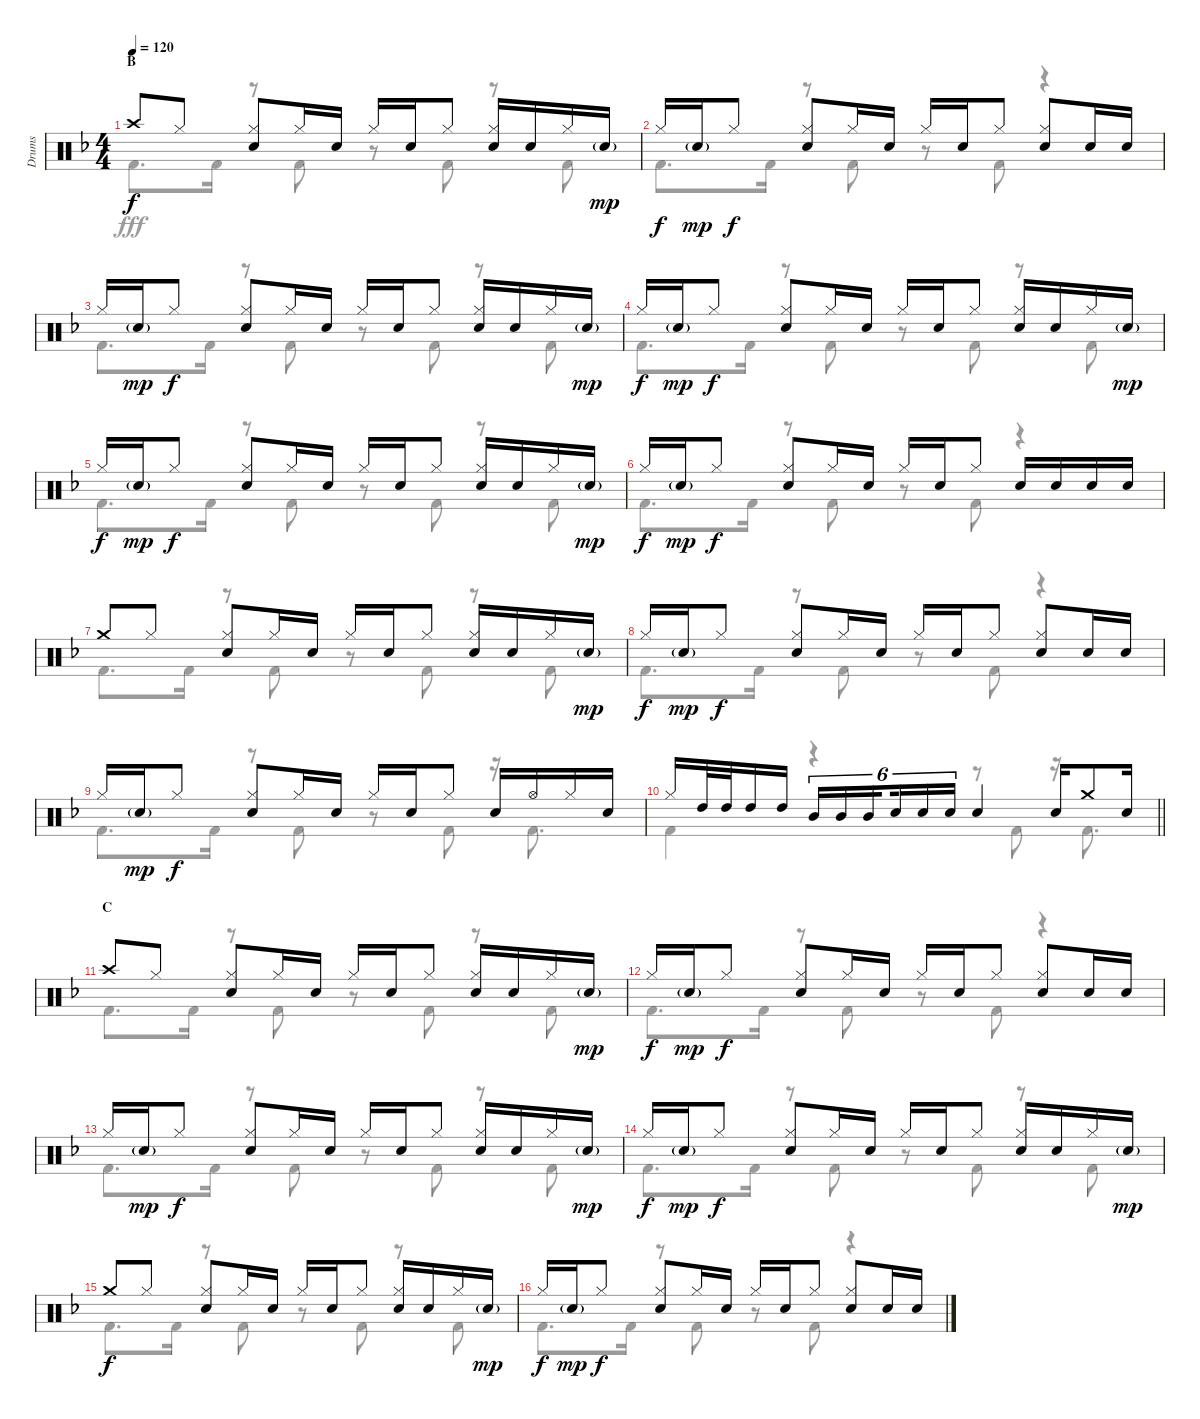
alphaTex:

\track ("Drums" "Drums") {instrument percussion}
\staff {score}
\articulation defaults
\voice
\ts (4 4)
\section ("" "B")
\tempo 120
\clef neutral
\ks f "Crash high (hit)".8{dy f} "Hi-Hat (closed)".8
("Hi-Hat (closed)" "Snare (hit) 2").8 "Hi-Hat (closed)".16 "Snare (hit) 2".16 "Hi-Hat (closed)".16 "Snare (hit) 2".16 "Hi-Hat (closed)".8 ("Hi-Hat (closed)" "Snare (hit) 2").16 "Snare (hit) 2".16 "Hi-Hat (closed)".16 "Snare (hit) 2"{g}.16{dy mp} |
"Hi-Hat (closed)".16{dy f} "Snare (hit) 2"{g}.16{dy mp} "Hi-Hat (closed)".8{dy f} ("Hi-Hat (closed)" "Snare (hit) 2").8 "Hi-Hat (closed)".16 "Snare (hit) 2".16 "Hi-Hat (closed)".16 "Snare (hit) 2".16 "Hi-Hat (closed)".8 ("Hi-Hat (closed)" "Snare (hit) 2").8 "Snare (hit) 2".16 "Snare (hit) 2".16 |
"Hi-Hat (closed)".16 "Snare (hit) 2"{g}.16{dy mp} "Hi-Hat (closed)".8{dy f} ("Hi-Hat (closed)" "Snare (hit) 2").8 "Hi-Hat (closed)".16 "Snare (hit) 2".16 "Hi-Hat (closed)".16 "Snare (hit) 2".16 "Hi-Hat (closed)".8 ("Hi-Hat (closed)" "Snare (hit) 2").16 "Snare (hit) 2".16 "Hi-Hat (closed)".16 "Snare (hit) 2"{g}.16{dy mp} |
"Hi-Hat (closed)".16{dy f} "Snare (hit) 2"{g}.16{dy mp} "Hi-Hat (closed)".8{dy f} ("Hi-Hat (closed)" "Snare (hit) 2").8 "Hi-Hat (closed)".16 "Snare (hit) 2".16 "Hi-Hat (closed)".16 "Snare (hit) 2".16 "Hi-Hat (closed)".8 ("Hi-Hat (closed)" "Snare (hit) 2").16 "Snare (hit) 2".16 "Hi-Hat (closed)".16 "Snare (hit) 2"{g}.16{dy mp} |
"Hi-Hat (closed)".16{dy f} "Snare (hit) 2"{g}.16{dy mp} "Hi-Hat (closed)".8{dy f} ("Hi-Hat (closed)" "Snare (hit) 2").8 "Hi-Hat (closed)".16 "Snare (hit) 2".16 "Hi-Hat (closed)".16 "Snare (hit) 2".16 "Hi-Hat (closed)".8 ("Hi-Hat (closed)" "Snare (hit) 2").16 "Snare (hit) 2".16 "Hi-Hat (closed)".16 "Snare (hit) 2"{g}.16{dy mp} |
"Hi-Hat (closed)".16{dy f} "Snare (hit) 2"{g}.16{dy mp} "Hi-Hat (closed)".8{dy f} ("Hi-Hat (closed)" "Snare (hit) 2").8 "Hi-Hat (closed)".16 "Snare (hit) 2".16 "Hi-Hat (closed)".16 "Snare (hit) 2".16 "Hi-Hat (closed)".8 "Snare (hit) 2".16 "Snare (hit) 2".16 "Snare (hit) 2".16 "Snare (hit) 2".16 |
"Crash medium (hit)".8 "Hi-Hat (closed)".8 ("Hi-Hat (closed)" "Snare (hit) 2").8 "Hi-Hat (closed)".16 "Snare (hit) 2".16 "Hi-Hat (closed)".16 "Snare (hit) 2".16 "Hi-Hat (closed)".8 ("Hi-Hat (closed)" "Snare (hit) 2").16 "Snare (hit) 2".16 "Hi-Hat (closed)".16 "Snare (hit) 2"{g}.16{dy mp} |
"Hi-Hat (closed)".16{dy f} "Snare (hit) 2"{g}.16{dy mp} "Hi-Hat (closed)".8{dy f} ("Hi-Hat (closed)" "Snare (hit) 2").8 "Hi-Hat (closed)".16 "Snare (hit) 2".16 "Hi-Hat (closed)".16 "Snare (hit) 2".16 "Hi-Hat (closed)".8 ("Hi-Hat (closed)" "Snare (hit) 2").8 "Snare (hit) 2".16 "Snare (hit) 2".16 |
"Hi-Hat (closed)".16 "Snare (hit) 2"{g}.16{dy mp} "Hi-Hat (closed)".8{dy f} ("Hi-Hat (closed)" "Snare (hit) 2").8 "Hi-Hat (closed)".16 "Snare (hit) 2".16 "Hi-Hat (closed)".16 "Snare (hit) 2".16 "Hi-Hat (closed)".8 "Snare (hit) 2".16 "Hi-Hat (open)".16 "Hi-Hat (closed)".16 "Snare (hit) 2".16 |
\barLineRight lightlight "Hi-Hat (closed)".16 "High Tom (hit)".32 "High Tom (hit)".32 "High Tom (hit)".16 "High Tom (hit)".16 "Mid Tom (hit)".16{tu (6 4)} "Mid Tom (hit)".16{tu (6 4)} "Mid Tom (hit)".16{tu (6 4) beam splitsecondary} "Snare (hit) 2".16{tu (6 4)} "Snare (hit) 2".16{tu (6 4)} "Snare (hit) 2".16{tu (6 4)} "Snare (hit) 2".4 "Snare (hit) 2".16 "Crash medium (hit)".8 "Snare (hit) 2".16
|
\section ("" "C")
"Crash high (hit)".8 "Hi-Hat (closed)".8 ("Hi-Hat (closed)" "Snare (hit) 2").8 "Hi-Hat (closed)".16 "Snare (hit) 2".16 "Hi-Hat (closed)".16 "Snare (hit) 2".16 "Hi-Hat (closed)".8 ("Hi-Hat (closed)" "Snare (hit) 2").16 "Snare (hit) 2".16 "Hi-Hat (closed)".16 "Snare (hit) 2"{g}.16{dy mp} |
"Hi-Hat (closed)".16{dy f} "Snare (hit) 2"{g}.16{dy mp} "Hi-Hat (closed)".8{dy f} ("Hi-Hat (closed)" "Snare (hit) 2").8 "Hi-Hat (closed)".16 "Snare (hit) 2".16 "Hi-Hat (closed)".16 "Snare (hit) 2".16 "Hi-Hat (closed)".8 ("Hi-Hat (closed)" "Snare (hit) 2").8 "Snare (hit) 2".16 "Snare (hit) 2".16 |
"Hi-Hat (closed)".16 "Snare (hit) 2"{g}.16{dy mp} "Hi-Hat (closed)".8{dy f} ("Hi-Hat (closed)" "Snare (hit) 2").8 "Hi-Hat (closed)".16 "Snare (hit) 2".16 "Hi-Hat (closed)".16 "Snare (hit) 2".16 "Hi-Hat (closed)".8 ("Hi-Hat (closed)" "Snare (hit) 2").16 "Snare (hit) 2".16 "Hi-Hat (closed)".16 "Snare (hit) 2"{g}.16{dy mp} |
"Hi-Hat (closed)".16{dy f} "Snare (hit) 2"{g}.16{dy mp} "Hi-Hat (closed)".8{dy f} ("Hi-Hat (closed)" "Snare (hit) 2").8 "Hi-Hat (closed)".16 "Snare (hit) 2".16 "Hi-Hat (closed)".16 "Snare (hit) 2".16 "Hi-Hat (closed)".8 ("Hi-Hat (closed)" "Snare (hit) 2").16 "Snare (hit) 2".16 "Hi-Hat (closed)".16 "Snare (hit) 2"{g}.16{dy mp} |
"Crash medium (hit)".8{dy f} "Hi-Hat (closed)".8 ("Hi-Hat (closed)" "Snare (hit) 2").8 "Hi-Hat (closed)".16 "Snare (hit) 2".16 "Hi-Hat (closed)".16 "Snare (hit) 2".16 "Hi-Hat (closed)".8 ("Hi-Hat (closed)" "Snare (hit) 2").16 "Snare (hit) 2".16 "Hi-Hat (closed)".16 "Snare (hit) 2"{g}.16{dy mp} |
"Hi-Hat (closed)".16{dy f} "Snare (hit) 2"{g}.16{dy mp} "Hi-Hat (closed)".8{dy f} ("Hi-Hat (closed)" "Snare (hit) 2").8 "Hi-Hat (closed)".16 "Snare (hit) 2".16 "Hi-Hat (closed)".16 "Snare (hit) 2".16 "Hi-Hat (closed)".8 ("Hi-Hat (closed)" "Snare (hit) 2").8 "Snare (hit) 2".16 "Snare (hit) 2".16
\voice
\clef neutral
\ottava regular
\simile none
\ks f "Kick (hit) 2".8{d dy fff} "Kick (hit) 2".16
r.8 "Kick (hit) 2".8 r.8 "Kick (hit) 2".8 r.8 "Kick (hit) 2".8 |
"Kick (hit) 2".8{d} "Kick (hit) 2".16 r.8 "Kick (hit) 2".8 r.8 "Kick (hit) 2".8 r.4 |
"Kick (hit) 2".8{d} "Kick (hit) 2".16 r.8 "Kick (hit) 2".8 r.8 "Kick (hit) 2".8 r.8 "Kick (hit) 2".8 |
"Kick (hit) 2".8{d} "Kick (hit) 2".16 r.8 "Kick (hit) 2".8 r.8 "Kick (hit) 2".8 r.8 "Kick (hit) 2".8 |
"Kick (hit) 2".8{d} "Kick (hit) 2".16 r.8 "Kick (hit) 2".8 r.8 "Kick (hit) 2".8 r.8 "Kick (hit) 2".8 |
"Kick (hit) 2".8{d} "Kick (hit) 2".16 r.8 "Kick (hit) 2".8 r.8 "Kick (hit) 2".8 r.4 |
"Kick (hit) 2".8{d} "Kick (hit) 2".16 r.8 "Kick (hit) 2".8 r.8 "Kick (hit) 2".8 r.8 "Kick (hit) 2".8 |
"Kick (hit) 2".8{d} "Kick (hit) 2".16 r.8 "Kick (hit) 2".8 r.8 "Kick (hit) 2".8 r.4 |
"Kick (hit) 2".8{d} "Kick (hit) 2".16 r.8 "Kick (hit) 2".8 r.8 "Kick (hit) 2".8 r.16 "Kick (hit) 2".8{d} |
\barLineRight lightlight "Kick (hit) 2".4
r.4 r.8 "Kick (hit) 2".8 r.16 "Kick (hit) 2".8{d} |
"Kick (hit) 2".8{d} "Kick (hit) 2".16 r.8 "Kick (hit) 2".8 r.8 "Kick (hit) 2".8 r.8 "Kick (hit) 2".8 |
"Kick (hit) 2".8{d} "Kick (hit) 2".16 r.8 "Kick (hit) 2".8 r.8 "Kick (hit) 2".8 r.4 |
"Kick (hit) 2".8{d} "Kick (hit) 2".16 r.8 "Kick (hit) 2".8 r.8 "Kick (hit) 2".8 r.8 "Kick (hit) 2".8 |
"Kick (hit) 2".8{d} "Kick (hit) 2".16 r.8 "Kick (hit) 2".8 r.8 "Kick (hit) 2".8 r.8 "Kick (hit) 2".8 |
"Kick (hit) 2".8{d} "Kick (hit) 2".16 r.8 "Kick (hit) 2".8 r.8 "Kick (hit) 2".8 r.8 "Kick (hit) 2".8 |
"Kick (hit) 2".8{d} "Kick (hit) 2".16 r.8 "Kick (hit) 2".8 r.8 "Kick (hit) 2".8 r.4
